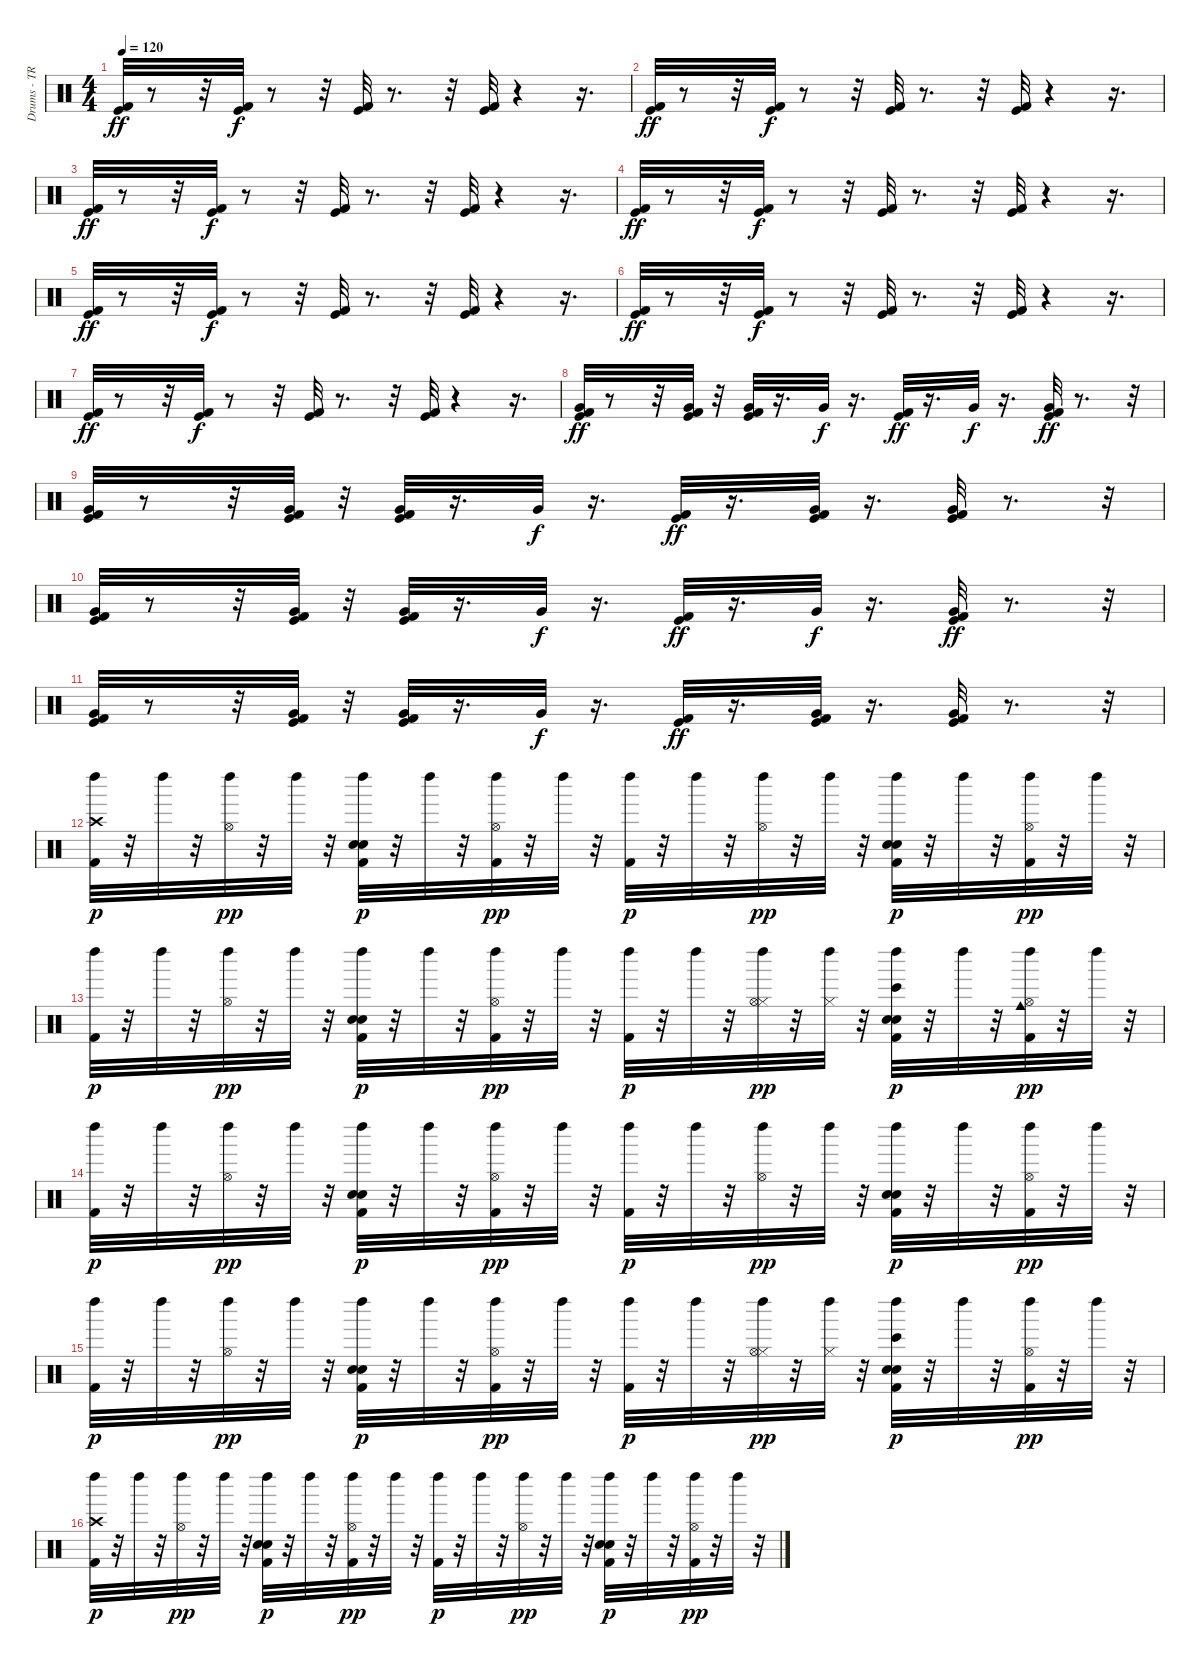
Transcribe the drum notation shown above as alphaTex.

\track ("Drums - TR" "Drums - TR") {instrument percussion}
\staff {score}
\articulation defaults
\ts (4 4)
\tempo 120
\clef neutral
\ks c
("Kick (hit)" "Kick (hit) 2").32{dy ff} r.8 r.32 ("Kick (hit)" "Kick (hit) 2").32{dy f} r.8 r.32 ("Kick (hit)" "Kick (hit) 2").32 r.8{d} r.32 ("Kick (hit)" "Kick (hit) 2").32 r.4 r.16{d} |
("Kick (hit)" "Kick (hit) 2").32{dy ff} r.8 r.32 ("Kick (hit)" "Kick (hit) 2").32{dy f} r.8 r.32 ("Kick (hit)" "Kick (hit) 2").32 r.8{d} r.32 ("Kick (hit)" "Kick (hit) 2").32 r.4 r.16{d} |
("Kick (hit)" "Kick (hit) 2").32{dy ff} r.8 r.32 ("Kick (hit)" "Kick (hit) 2").32{dy f} r.8 r.32 ("Kick (hit)" "Kick (hit) 2").32 r.8{d} r.32 ("Kick (hit)" "Kick (hit) 2").32 r.4 r.16{d} |
("Kick (hit)" "Kick (hit) 2").32{dy ff} r.8 r.32 ("Kick (hit)" "Kick (hit) 2").32{dy f} r.8 r.32 ("Kick (hit)" "Kick (hit) 2").32 r.8{d} r.32 ("Kick (hit)" "Kick (hit) 2").32 r.4 r.16{d} |
("Kick (hit)" "Kick (hit) 2").32{dy ff} r.8 r.32 ("Kick (hit)" "Kick (hit) 2").32{dy f} r.8 r.32 ("Kick (hit)" "Kick (hit) 2").32 r.8{d} r.32 ("Kick (hit)" "Kick (hit) 2").32 r.4 r.16{d} |
("Kick (hit)" "Kick (hit) 2").32{dy ff} r.8 r.32 ("Kick (hit)" "Kick (hit) 2").32{dy f} r.8 r.32 ("Kick (hit)" "Kick (hit) 2").32 r.8{d} r.32 ("Kick (hit)" "Kick (hit) 2").32 r.4 r.16{d} |
("Kick (hit)" "Kick (hit) 2").32{dy ff} r.8 r.32 ("Kick (hit)" "Kick (hit) 2").32{dy f} r.8 r.32 ("Kick (hit)" "Kick (hit) 2").32 r.8{d} r.32 ("Kick (hit)" "Kick (hit) 2").32 r.4 r.16{d} |
("Kick (hit)" "Kick (hit) 2" "Very Low Tom (hit)").32{dy ff} r.8 r.32 ("Kick (hit)" "Kick (hit) 2" "Very Low Tom (hit)").32 r.32 ("Kick (hit)" "Kick (hit) 2" "Very Low Tom (hit)").32 r.16{d} "Very Low Tom (hit)".32{dy f} r.16{d} ("Kick (hit)" "Kick (hit) 2").32{dy ff} r.16{d} "Very Low Tom (hit)".32{dy f} r.16{d} ("Kick (hit)" "Kick (hit) 2" "Very Low Tom (hit)").32{dy ff} r.8{d} r.32 |
("Kick (hit)" "Kick (hit) 2" "Very Low Tom (hit)").32 r.8 r.32 ("Kick (hit)" "Kick (hit) 2" "Very Low Tom (hit)").32 r.32 ("Kick (hit)" "Kick (hit) 2" "Very Low Tom (hit)").32 r.16{d} "Very Low Tom (hit)".32{dy f} r.16{d} ("Kick (hit)" "Kick (hit) 2").32{dy ff} r.16{d} ("Kick (hit)" "Kick (hit) 2" "Very Low Tom (hit)").32 r.16{d} ("Kick (hit)" "Kick (hit) 2" "Very Low Tom (hit)").32 r.8{d} r.32 |
("Kick (hit)" "Kick (hit) 2" "Very Low Tom (hit)").32 r.8 r.32 ("Kick (hit)" "Kick (hit) 2" "Very Low Tom (hit)").32 r.32 ("Kick (hit)" "Kick (hit) 2" "Very Low Tom (hit)").32 r.16{d} "Very Low Tom (hit)".32{dy f} r.16{d} ("Kick (hit)" "Kick (hit) 2").32{dy ff} r.16{d} "Very Low Tom (hit)".32{dy f} r.16{d} ("Kick (hit)" "Kick (hit) 2" "Very Low Tom (hit)").32{dy ff} r.8{d} r.32 |
("Kick (hit)" "Kick (hit) 2" "Very Low Tom (hit)").32 r.8 r.32 ("Kick (hit)" "Kick (hit) 2" "Very Low Tom (hit)").32 r.32 ("Kick (hit)" "Kick (hit) 2" "Very Low Tom (hit)").32 r.16{d} "Very Low Tom (hit)".32{dy f} r.16{d} ("Kick (hit)" "Kick (hit) 2").32{dy ff} r.16{d} ("Kick (hit)" "Kick (hit) 2" "Very Low Tom (hit)").32 r.16{d} ("Kick (hit)" "Kick (hit) 2" "Very Low Tom (hit)").32 r.8{d} r.32 |
("Kick (hit) 2" "Crash high (hit)" "Left Maraca (hit)").32{dy p} r.32 "Left Maraca (hit)".32 r.32 ("Hi-Hat (open)" "Left Maraca (hit)").32{dy pp} r.32 "Left Maraca (hit)".32 r.32 ("Kick (hit) 2" "Snare (hit) 2" "Hand Clap (hit)" "Left Maraca (hit)").32{dy p} r.32 "Left Maraca (hit)".32 r.32 ("Kick (hit) 2" "Hi-Hat (open)" "Left Maraca (hit)").32{dy pp} r.32 "Left Maraca (hit)".32 r.32 ("Kick (hit) 2" "Left Maraca (hit)").32{dy p} r.32 "Left Maraca (hit)".32 r.32 ("Hi-Hat (open)" "Left Maraca (hit)").32{dy pp} r.32 "Left Maraca (hit)".32 r.32 ("Kick (hit) 2" "Snare (hit) 2" "Hand Clap (hit)" "Left Maraca (hit)").32{dy p} r.32 "Left Maraca (hit)".32 r.32 ("Kick (hit) 2" "Hi-Hat (open)" "Left Maraca (hit)").32{dy pp} r.32 "Left Maraca (hit)".32 r.32 |
("Kick (hit) 2" "Left Maraca (hit)").32{dy p} r.32 "Left Maraca (hit)".32 r.32 ("Hi-Hat (open)" "Left Maraca (hit)").32{dy pp} r.32 "Left Maraca (hit)".32 r.32 ("Kick (hit) 2" "Snare (hit) 2" "Hand Clap (hit)" "Left Maraca (hit)").32{dy p} r.32 "Left Maraca (hit)".32 r.32 ("Kick (hit) 2" "Hi-Hat (open)" "Left Maraca (hit)").32{dy pp} r.32 "Left Maraca (hit)".32 r.32 ("Kick (hit) 2" "Left Maraca (hit)").32{dy p} r.32 "Left Maraca (hit)".32 r.32 ("Hi-Hat (closed)" "Hi-Hat (open)" "Left Maraca (hit)").32{dy pp} r.32 ("Hi-Hat (closed)" "Left Maraca (hit)").32 r.32 ("Kick (hit) 2" "Snare (hit) 2" "Hand Clap (hit)" "Left Maraca (hit)" "Bongo High (hit)").32{dy p} r.32 "Left Maraca (hit)".32 r.32 ("Kick (hit) 2" "Hi-Hat (open)" "Cowbell medium (hit)" "Left Maraca (hit)").32{dy pp} r.32 "Left Maraca (hit)".32 r.32 |
("Kick (hit) 2" "Left Maraca (hit)").32{dy p} r.32 "Left Maraca (hit)".32 r.32 ("Hi-Hat (open)" "Left Maraca (hit)").32{dy pp} r.32 "Left Maraca (hit)".32 r.32 ("Kick (hit) 2" "Snare (hit) 2" "Hand Clap (hit)" "Left Maraca (hit)").32{dy p} r.32 "Left Maraca (hit)".32 r.32 ("Kick (hit) 2" "Hi-Hat (open)" "Left Maraca (hit)").32{dy pp} r.32 "Left Maraca (hit)".32 r.32 ("Kick (hit) 2" "Left Maraca (hit)").32{dy p} r.32 "Left Maraca (hit)".32 r.32 ("Hi-Hat (open)" "Left Maraca (hit)").32{dy pp} r.32 "Left Maraca (hit)".32 r.32 ("Kick (hit) 2" "Snare (hit) 2" "Hand Clap (hit)" "Left Maraca (hit)").32{dy p} r.32 "Left Maraca (hit)".32 r.32 ("Kick (hit) 2" "Hi-Hat (open)" "Left Maraca (hit)").32{dy pp} r.32 "Left Maraca (hit)".32 r.32 |
("Kick (hit) 2" "Left Maraca (hit)").32{dy p} r.32 "Left Maraca (hit)".32 r.32 ("Hi-Hat (open)" "Left Maraca (hit)").32{dy pp} r.32 "Left Maraca (hit)".32 r.32 ("Kick (hit) 2" "Snare (hit) 2" "Hand Clap (hit)" "Left Maraca (hit)").32{dy p} r.32 "Left Maraca (hit)".32 r.32 ("Kick (hit) 2" "Hi-Hat (open)" "Left Maraca (hit)").32{dy pp} r.32 "Left Maraca (hit)".32 r.32 ("Kick (hit) 2" "Left Maraca (hit)").32{dy p} r.32 "Left Maraca (hit)".32 r.32 ("Hi-Hat (closed)" "Hi-Hat (open)" "Left Maraca (hit)").32{dy pp} r.32 ("Hi-Hat (closed)" "Left Maraca (hit)").32 r.32 ("Kick (hit) 2" "Snare (hit) 2" "Hand Clap (hit)" "Left Maraca (hit)" "Bongo High (hit)").32{dy p} r.32 "Left Maraca (hit)".32 r.32 ("Kick (hit) 2" "Hi-Hat (open)" "Left Maraca (hit)").32{dy pp} r.32 "Left Maraca (hit)".32 r.32 |
("Kick (hit) 2" "Crash high (hit)" "Left Maraca (hit)").32{dy p} r.32 "Left Maraca (hit)".32 r.32 ("Hi-Hat (open)" "Left Maraca (hit)").32{dy pp} r.32 "Left Maraca (hit)".32 r.32 ("Kick (hit) 2" "Snare (hit) 2" "Hand Clap (hit)" "Left Maraca (hit)").32{dy p} r.32 "Left Maraca (hit)".32 r.32 ("Kick (hit) 2" "Hi-Hat (open)" "Left Maraca (hit)").32{dy pp} r.32 "Left Maraca (hit)".32 r.32 ("Kick (hit) 2" "Left Maraca (hit)").32{dy p} r.32 "Left Maraca (hit)".32 r.32 ("Hi-Hat (open)" "Left Maraca (hit)").32{dy pp} r.32 "Left Maraca (hit)".32 r.32 ("Kick (hit) 2" "Snare (hit) 2" "Hand Clap (hit)" "Left Maraca (hit)").32{dy p} r.32 "Left Maraca (hit)".32 r.32 ("Kick (hit) 2" "Hi-Hat (open)" "Left Maraca (hit)").32{dy pp} r.32 "Left Maraca (hit)".32 r.32
